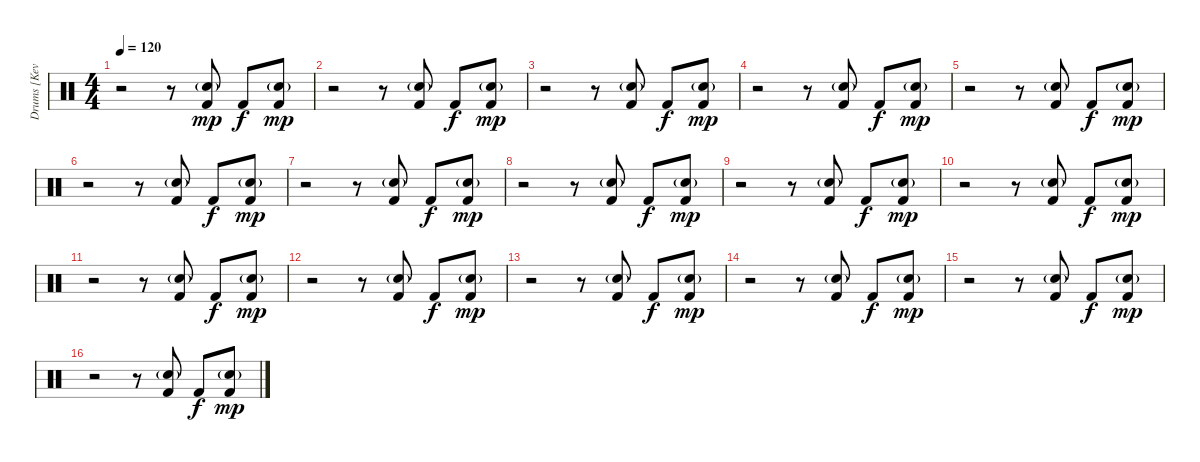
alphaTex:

\track ("Drums [Kevin Haskins]" "Drums [Kev") {instrument percussion}
\staff {score}
\articulation defaults
\ts (4 4)
\tempo 120
\clef neutral
\ks c
r.2{dy mp} r.8 ("Snare (hit) 2"{g} "Kick (hit) 2").8 "Kick (hit) 2".8{dy f} ("Snare (hit) 2"{g} "Kick (hit) 2").8{dy mp} |
r.2 r.8 ("Snare (hit) 2"{g} "Kick (hit) 2").8 "Kick (hit) 2".8{dy f} ("Snare (hit) 2"{g} "Kick (hit) 2").8{dy mp} |
r.2 r.8 ("Snare (hit) 2"{g} "Kick (hit) 2").8 "Kick (hit) 2".8{dy f} ("Snare (hit) 2"{g} "Kick (hit) 2").8{dy mp} |
r.2 r.8 ("Snare (hit) 2"{g} "Kick (hit) 2").8 "Kick (hit) 2".8{dy f} ("Snare (hit) 2"{g} "Kick (hit) 2").8{dy mp} |
r.2 r.8 ("Snare (hit) 2"{g} "Kick (hit) 2").8 "Kick (hit) 2".8{dy f} ("Snare (hit) 2"{g} "Kick (hit) 2").8{dy mp} |
r.2 r.8 ("Snare (hit) 2"{g} "Kick (hit) 2").8 "Kick (hit) 2".8{dy f} ("Snare (hit) 2"{g} "Kick (hit) 2").8{dy mp} |
r.2 r.8 ("Snare (hit) 2"{g} "Kick (hit) 2").8 "Kick (hit) 2".8{dy f} ("Snare (hit) 2"{g} "Kick (hit) 2").8{dy mp} |
r.2 r.8 ("Snare (hit) 2"{g} "Kick (hit) 2").8 "Kick (hit) 2".8{dy f} ("Snare (hit) 2"{g} "Kick (hit) 2").8{dy mp} |
r.2 r.8 ("Snare (hit) 2"{g} "Kick (hit) 2").8 "Kick (hit) 2".8{dy f} ("Snare (hit) 2"{g} "Kick (hit) 2").8{dy mp} |
r.2 r.8 ("Snare (hit) 2"{g} "Kick (hit) 2").8 "Kick (hit) 2".8{dy f} ("Snare (hit) 2"{g} "Kick (hit) 2").8{dy mp} |
r.2 r.8 ("Snare (hit) 2"{g} "Kick (hit) 2").8 "Kick (hit) 2".8{dy f} ("Snare (hit) 2"{g} "Kick (hit) 2").8{dy mp} |
r.2 r.8 ("Snare (hit) 2"{g} "Kick (hit) 2").8 "Kick (hit) 2".8{dy f} ("Snare (hit) 2"{g} "Kick (hit) 2").8{dy mp} |
r.2 r.8 ("Snare (hit) 2"{g} "Kick (hit) 2").8 "Kick (hit) 2".8{dy f} ("Snare (hit) 2"{g} "Kick (hit) 2").8{dy mp} |
r.2 r.8 ("Snare (hit) 2"{g} "Kick (hit) 2").8 "Kick (hit) 2".8{dy f} ("Snare (hit) 2"{g} "Kick (hit) 2").8{dy mp} |
r.2 r.8 ("Snare (hit) 2"{g} "Kick (hit) 2").8 "Kick (hit) 2".8{dy f} ("Snare (hit) 2"{g} "Kick (hit) 2").8{dy mp} |
r.2 r.8 ("Snare (hit) 2"{g} "Kick (hit) 2").8 "Kick (hit) 2".8{dy f} ("Snare (hit) 2"{g} "Kick (hit) 2").8{dy mp}
